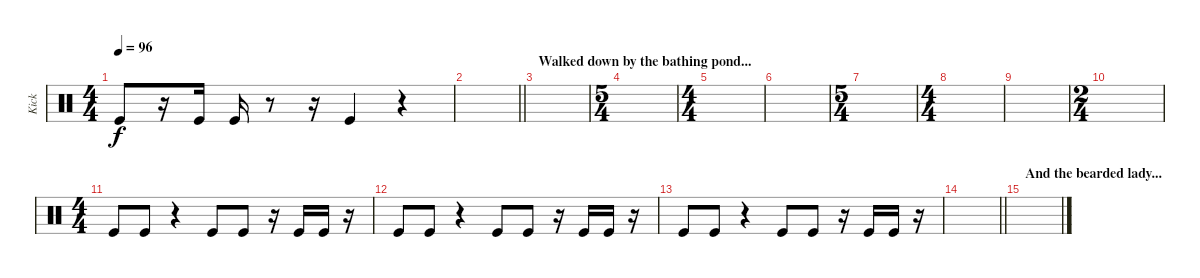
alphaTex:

\track ("Kick" "Kick") {instrument percussion}
\staff {score}
\articulation defaults
\ts (4 4)
\tempo 96
\clef neutral
\ks c "Kick (hit)".8{dy f}
r.16 "Kick (hit)".16 "Kick (hit)".16 r.8 r.16 "Kick (hit)".4 r.4 |
\barLineRight lightlight
|
\section ("" "Walked down by the bathing pond...")
|
\ts (5 4)
|
\ts (4 4)
|
|
\ts (5 4)
|
\ts (4 4)
|
|
\ts (2 4)
|
\ts (4 4)
"Kick (hit)".8 "Kick (hit)".8 r.4 "Kick (hit)".8 "Kick (hit)".8 r.16 "Kick (hit)".16 "Kick (hit)".16 r.16 |
"Kick (hit)".8 "Kick (hit)".8 r.4 "Kick (hit)".8 "Kick (hit)".8 r.16 "Kick (hit)".16 "Kick (hit)".16 r.16 |
"Kick (hit)".8 "Kick (hit)".8 r.4 "Kick (hit)".8 "Kick (hit)".8 r.16 "Kick (hit)".16 "Kick (hit)".16 r.16 |
\barLineRight lightlight
|
\section ("" "And the bearded lady...")
